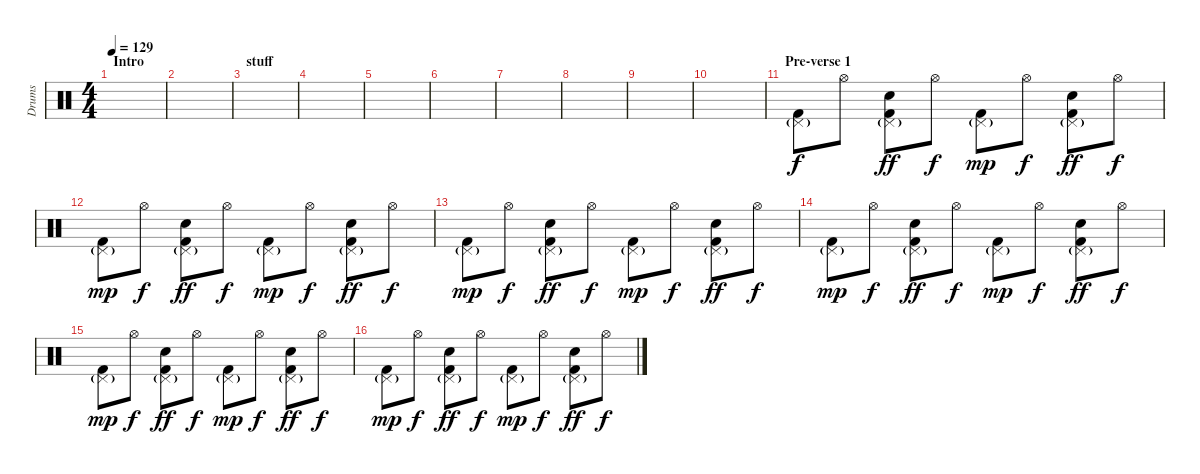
\track ("Drums" "Drums") {instrument percussion}
\staff {score}
\articulation defaults
\ts (4 4)
\section ("" "Intro")
\tempo 129
\clef neutral
\ks c
|
|
\section ("" "stuff")
|
|
|
|
|
|
|
|
\section ("" "Pre-verse 1")
("Pedal Hi-Hat (hit)"{g} "Kick (hit) 2").8 "Hi-Hat (open)".8{dy f} ("Pedal Hi-Hat (hit)"{g} "Electric Snare (hit)" "Kick (hit) 2").8{dy ff} "Hi-Hat (open)".8{dy f} ("Pedal Hi-Hat (hit)"{g} "Kick (hit) 2").8{dy mp} "Hi-Hat (open)".8{dy f} ("Pedal Hi-Hat (hit)"{g} "Electric Snare (hit)" "Kick (hit) 2").8{dy ff} "Hi-Hat (open)".8{dy f} |
("Pedal Hi-Hat (hit)"{g} "Kick (hit) 2").8{dy mp} "Hi-Hat (open)".8{dy f} ("Pedal Hi-Hat (hit)"{g} "Electric Snare (hit)" "Kick (hit) 2").8{dy ff} "Hi-Hat (open)".8{dy f} ("Pedal Hi-Hat (hit)"{g} "Kick (hit) 2").8{dy mp} "Hi-Hat (open)".8{dy f} ("Pedal Hi-Hat (hit)"{g} "Electric Snare (hit)" "Kick (hit) 2").8{dy ff} "Hi-Hat (open)".8{dy f} |
("Pedal Hi-Hat (hit)"{g} "Kick (hit) 2").8{dy mp} "Hi-Hat (open)".8{dy f} ("Pedal Hi-Hat (hit)"{g} "Electric Snare (hit)" "Kick (hit) 2").8{dy ff} "Hi-Hat (open)".8{dy f} ("Pedal Hi-Hat (hit)"{g} "Kick (hit) 2").8{dy mp} "Hi-Hat (open)".8{dy f} ("Pedal Hi-Hat (hit)"{g} "Electric Snare (hit)" "Kick (hit) 2").8{dy ff} "Hi-Hat (open)".8{dy f} |
("Pedal Hi-Hat (hit)"{g} "Kick (hit) 2").8{dy mp} "Hi-Hat (open)".8{dy f} ("Pedal Hi-Hat (hit)"{g} "Electric Snare (hit)" "Kick (hit) 2").8{dy ff} "Hi-Hat (open)".8{dy f} ("Pedal Hi-Hat (hit)"{g} "Kick (hit) 2").8{dy mp} "Hi-Hat (open)".8{dy f} ("Pedal Hi-Hat (hit)"{g} "Electric Snare (hit)" "Kick (hit) 2").8{dy ff} "Hi-Hat (open)".8{dy f} |
("Pedal Hi-Hat (hit)"{g} "Kick (hit) 2").8{dy mp} "Hi-Hat (open)".8{dy f} ("Pedal Hi-Hat (hit)"{g} "Electric Snare (hit)" "Kick (hit) 2").8{dy ff} "Hi-Hat (open)".8{dy f} ("Pedal Hi-Hat (hit)"{g} "Kick (hit) 2").8{dy mp} "Hi-Hat (open)".8{dy f} ("Pedal Hi-Hat (hit)"{g} "Electric Snare (hit)" "Kick (hit) 2").8{dy ff} "Hi-Hat (open)".8{dy f} |
("Pedal Hi-Hat (hit)"{g} "Kick (hit) 2").8{dy mp} "Hi-Hat (open)".8{dy f} ("Pedal Hi-Hat (hit)"{g} "Electric Snare (hit)" "Kick (hit) 2").8{dy ff} "Hi-Hat (open)".8{dy f} ("Pedal Hi-Hat (hit)"{g} "Kick (hit) 2").8{dy mp} "Hi-Hat (open)".8{dy f} ("Pedal Hi-Hat (hit)"{g} "Electric Snare (hit)" "Kick (hit) 2").8{dy ff} "Hi-Hat (open)".8{dy f}
